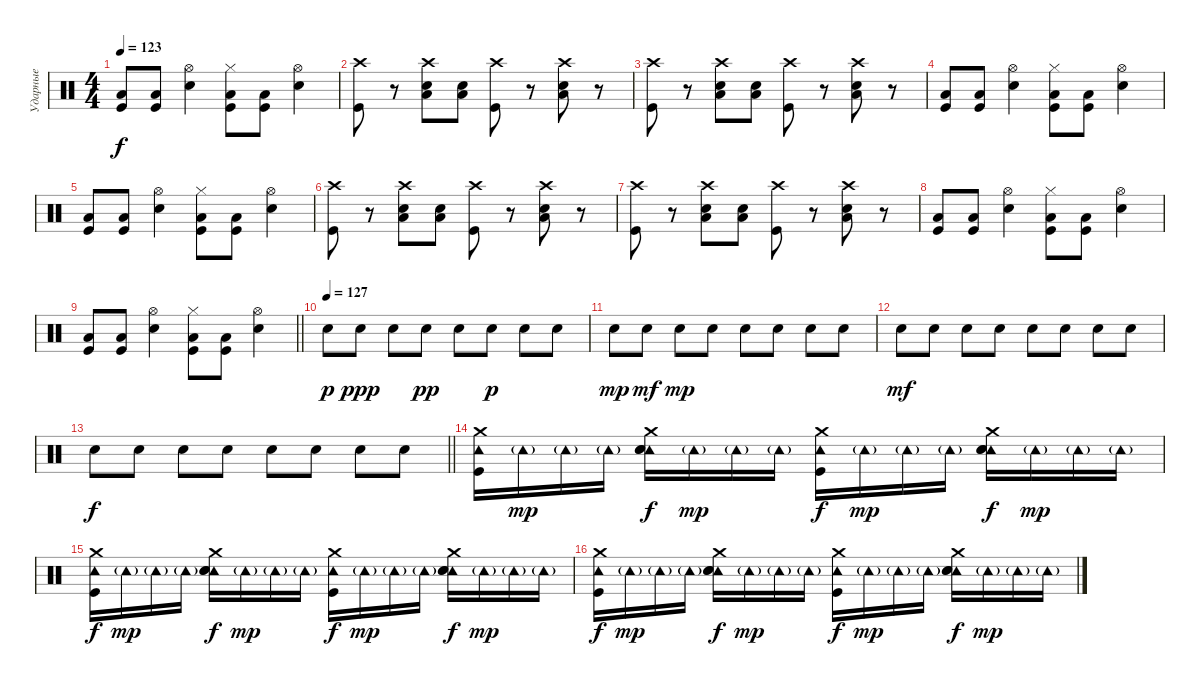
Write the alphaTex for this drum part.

\track ("Ударные" "Ударные") {instrument percussion}
\staff {score}
\articulation defaults
\ts (4 4)
\tempo 123
\clef neutral
\ks c
("Low Tom (hit)" "Kick (hit)").8{dy f} ("Low Tom (hit)" "Kick (hit)").8 ("Hi-Hat (open)" "Electric Snare (hit)").4 ("Hi-Hat (closed)" "Low Tom (hit)" "Kick (hit)").8 ("Low Tom (hit)" "Kick (hit)").8 ("Hi-Hat (open)" "Electric Snare (hit)").4 |
("Crash high (hit)" "Kick (hit)").8 r.8 ("Crash high (hit)" "Electric Snare (hit)" "Low Tom (hit)").8 ("Electric Snare (hit)" "Low Tom (hit)").8 ("Crash high (hit)" "Kick (hit)").8 r.8 ("Crash high (hit)" "Electric Snare (hit)" "Low Tom (hit)").8 r.8 |
("Crash high (hit)" "Kick (hit)").8 r.8 ("Crash high (hit)" "Electric Snare (hit)" "Low Tom (hit)").8 ("Electric Snare (hit)" "Low Tom (hit)").8 ("Crash high (hit)" "Kick (hit)").8 r.8 ("Crash high (hit)" "Electric Snare (hit)" "Low Tom (hit)").8 r.8 |
("Low Tom (hit)" "Kick (hit)").8 ("Low Tom (hit)" "Kick (hit)").8 ("Hi-Hat (open)" "Snare (hit) 2").4 ("Hi-Hat (closed)" "Low Tom (hit)" "Kick (hit)").8 ("Low Tom (hit)" "Kick (hit)").8 ("Hi-Hat (open)" "Snare (hit) 2").4 |
("Low Tom (hit)" "Kick (hit)").8 ("Low Tom (hit)" "Kick (hit)").8 ("Hi-Hat (open)" "Snare (hit) 2").4 ("Hi-Hat (closed)" "Low Tom (hit)" "Kick (hit)").8 ("Low Tom (hit)" "Kick (hit)").8 ("Hi-Hat (open)" "Snare (hit) 2").4 |
("Crash high (hit)" "Kick (hit)").8 r.8 ("Crash high (hit)" "Electric Snare (hit)" "Low Tom (hit)").8 ("Electric Snare (hit)" "Low Tom (hit)").8 ("Crash high (hit)" "Kick (hit)").8 r.8 ("Crash high (hit)" "Electric Snare (hit)" "Low Tom (hit)").8 r.8 |
("Crash high (hit)" "Kick (hit)").8 r.8 ("Crash high (hit)" "Electric Snare (hit)" "Low Tom (hit)").8 ("Electric Snare (hit)" "Low Tom (hit)").8 ("Crash high (hit)" "Kick (hit)").8 r.8 ("Crash high (hit)" "Electric Snare (hit)" "Low Tom (hit)").8 r.8 |
("Low Tom (hit)" "Kick (hit)").8 ("Low Tom (hit)" "Kick (hit)").8 ("Hi-Hat (open)" "Snare (hit) 2").4 ("Hi-Hat (closed)" "Low Tom (hit)" "Kick (hit)").8 ("Low Tom (hit)" "Kick (hit)").8 ("Hi-Hat (open)" "Snare (hit) 2").4 |
\barLineRight lightlight
("Low Tom (hit)" "Kick (hit)").8 ("Low Tom (hit)" "Kick (hit)").8 ("Hi-Hat (open)" "Snare (hit) 2").4 ("Hi-Hat (closed)" "Low Tom (hit)" "Kick (hit)").8 ("Low Tom (hit)" "Kick (hit)").8 ("Hi-Hat (open)" "Snare (hit) 2").4 |
\tempo (127)
"Snare (hit) 2".8{dy p} "Snare (hit) 2".8{dy ppp} "Snare (hit) 2".8 "Snare (hit) 2".8{dy pp} "Snare (hit) 2".8 "Snare (hit) 2".8{dy p} "Snare (hit) 2".8 "Snare (hit) 2".8 |
"Snare (hit) 2".8{dy mp} "Snare (hit) 2".8{dy mf} "Snare (hit) 2".8{dy mp} "Snare (hit) 2".8 "Snare (hit) 2".8 "Snare (hit) 2".8 "Snare (hit) 2".8 "Snare (hit) 2".8 |
"Snare (hit) 2".8{dy mf} "Snare (hit) 2".8 "Snare (hit) 2".8 "Snare (hit) 2".8 "Snare (hit) 2".8 "Snare (hit) 2".8 "Snare (hit) 2".8 "Snare (hit) 2".8 |
\barLineRight lightlight "Snare (hit) 2".8{dy f} "Snare (hit) 2".8 "Snare (hit) 2".8 "Snare (hit) 2".8 "Snare (hit) 2".8 "Snare (hit) 2".8 "Snare (hit) 2".8 "Snare (hit) 2".8
|
("Tambourine (hit)" "Crash medium (hit)" "Kick (hit)").16 "Tambourine (hit)"{g}.16{dy mp} "Tambourine (hit)"{g}.16 "Tambourine (hit)"{g}.16 ("Tambourine (hit)" "Crash medium (hit)" "Electric Snare (hit)" "Snare (hit) 2").16{dy f} "Tambourine (hit)"{g}.16{dy mp} "Tambourine (hit)"{g}.16 "Tambourine (hit)"{g}.16 ("Tambourine (hit)" "Crash medium (hit)" "Kick (hit)").16{dy f} "Tambourine (hit)"{g}.16{dy mp} "Tambourine (hit)"{g}.16 "Tambourine (hit)"{g}.16 ("Tambourine (hit)" "Crash medium (hit)" "Electric Snare (hit)" "Snare (hit) 2").16{dy f} "Tambourine (hit)"{g}.16{dy mp} "Tambourine (hit)"{g}.16 "Tambourine (hit)"{g}.16 |
("Tambourine (hit)" "Crash medium (hit)" "Kick (hit)").16{dy f} "Tambourine (hit)"{g}.16{dy mp} "Tambourine (hit)"{g}.16 "Tambourine (hit)"{g}.16 ("Tambourine (hit)" "Crash medium (hit)" "Electric Snare (hit)" "Snare (hit) 2").16{dy f} "Tambourine (hit)"{g}.16{dy mp} "Tambourine (hit)"{g}.16 "Tambourine (hit)"{g}.16 ("Tambourine (hit)" "Crash medium (hit)" "Kick (hit)").16{dy f} "Tambourine (hit)"{g}.16{dy mp} "Tambourine (hit)"{g}.16 "Tambourine (hit)"{g}.16 ("Tambourine (hit)" "Crash medium (hit)" "Electric Snare (hit)" "Snare (hit) 2").16{dy f} "Tambourine (hit)"{g}.16{dy mp} "Tambourine (hit)"{g}.16 "Tambourine (hit)"{g}.16 |
("Tambourine (hit)" "Crash medium (hit)" "Kick (hit)").16{dy f} "Tambourine (hit)"{g}.16{dy mp} "Tambourine (hit)"{g}.16 "Tambourine (hit)"{g}.16 ("Tambourine (hit)" "Crash medium (hit)" "Electric Snare (hit)" "Snare (hit) 2").16{dy f} "Tambourine (hit)"{g}.16{dy mp} "Tambourine (hit)"{g}.16 "Tambourine (hit)"{g}.16 ("Tambourine (hit)" "Crash medium (hit)" "Kick (hit)").16{dy f} "Tambourine (hit)"{g}.16{dy mp} "Tambourine (hit)"{g}.16 "Tambourine (hit)"{g}.16 ("Tambourine (hit)" "Crash medium (hit)" "Electric Snare (hit)" "Snare (hit) 2").16{dy f} "Tambourine (hit)"{g}.16{dy mp} "Tambourine (hit)"{g}.16 "Tambourine (hit)"{g}.16
